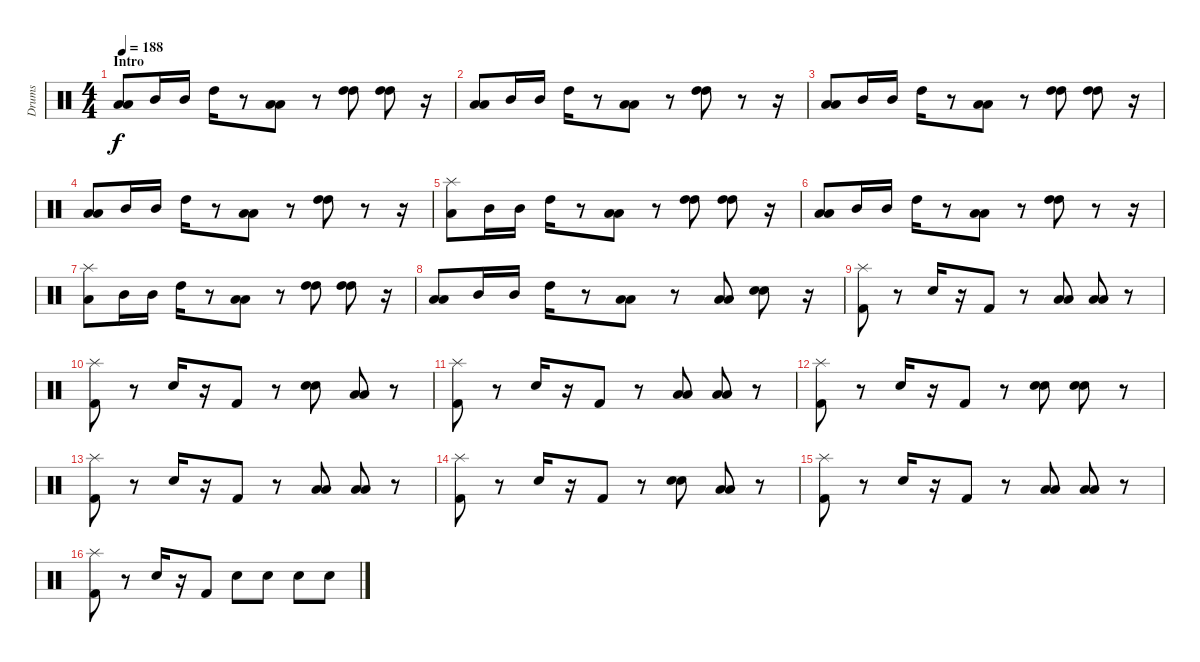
\track ("Drums" "Drums") {instrument percussion}
\staff {score}
\articulation defaults
\ts (4 4)
\section ("" "Intro")
\tempo 188
\clef neutral
\ks c
("Low Tom (hit)" "Low Tom (hit)").8{dy f} "Mid Tom (hit)".16 "Mid Tom (hit)".16 "High Tom (hit)".16 r.8 ("Low Tom (hit)" "Low Tom (hit)").8 r.8 ("High Tom (hit)" "High Tom (hit)").8 ("High Tom (hit)" "High Tom (hit)").8 r.16 |
("Low Tom (hit)" "Low Tom (hit)").8 "Mid Tom (hit)".16 "Mid Tom (hit)".16 "High Tom (hit)".16 r.8 ("Low Tom (hit)" "Low Tom (hit)").8 r.8 ("High Tom (hit)" "High Tom (hit)").8 r.8 r.16 |
("Low Tom (hit)" "Low Tom (hit)").8 "Mid Tom (hit)".16 "Mid Tom (hit)".16 "High Tom (hit)".16 r.8 ("Low Tom (hit)" "Low Tom (hit)").8 r.8 ("High Tom (hit)" "High Tom (hit)").8 ("High Tom (hit)" "High Tom (hit)").8 r.16 |
("Low Tom (hit)" "Low Tom (hit)").8 "Mid Tom (hit)".16 "Mid Tom (hit)".16 "High Tom (hit)".16 r.8 ("Low Tom (hit)" "Low Tom (hit)").8 r.8 ("High Tom (hit)" "High Tom (hit)").8 r.8 r.16 |
("Low Tom (hit)" "Splash (hit)").8 "Mid Tom (hit)".16 "Mid Tom (hit)".16 "High Tom (hit)".16 r.8 ("Low Tom (hit)" "Low Tom (hit)").8 r.8 ("High Tom (hit)" "High Tom (hit)").8 ("High Tom (hit)" "High Tom (hit)").8 r.16 |
("Low Tom (hit)" "Low Tom (hit)").8 "Mid Tom (hit)".16 "Mid Tom (hit)".16 "High Tom (hit)".16 r.8 ("Low Tom (hit)" "Low Tom (hit)").8 r.8 ("High Tom (hit)" "High Tom (hit)").8 r.8 r.16 |
("Low Tom (hit)" "Splash (hit)").8 "Mid Tom (hit)".16 "Mid Tom (hit)".16 "High Tom (hit)".16 r.8 ("Low Tom (hit)" "Low Tom (hit)").8 r.8 ("High Tom (hit)" "High Tom (hit)").8 ("High Tom (hit)" "High Tom (hit)").8 r.16 |
("Low Tom (hit)" "Low Tom (hit)").8 "Mid Tom (hit)".16 "Mid Tom (hit)".16 "High Tom (hit)".16 r.8 ("Low Tom (hit)" "Low Tom (hit)").8 r.8 ("Low Tom (hit)" "Low Tom (hit)").8 ("Snare (hit) 2" "Snare (hit) 2").8 r.16 |
("Kick (hit) 2" "Splash (hit)").8 r.8 "Snare (hit) 2".16 r.16 "Kick (hit) 2".8 r.8 ("Low Tom (hit)" "Low Tom (hit)").8 ("Low Tom (hit)" "Low Tom (hit)").8 r.8 |
("Kick (hit) 2" "Splash (hit)").8 r.8 "Snare (hit) 2".16 r.16 "Kick (hit) 2".8 r.8 ("Snare (hit) 2" "Snare (hit) 2").8 ("Low Tom (hit)" "Low Tom (hit)").8 r.8 |
("Kick (hit) 2" "Splash (hit)").8 r.8 "Snare (hit) 2".16 r.16 "Kick (hit) 2".8 r.8 ("Low Tom (hit)" "Low Tom (hit)").8 ("Low Tom (hit)" "Low Tom (hit)").8 r.8 |
("Kick (hit) 2" "Splash (hit)").8 r.8 "Snare (hit) 2".16 r.16 "Kick (hit) 2".8 r.8 ("Snare (hit) 2" "Snare (hit) 2").8 ("Snare (hit) 2" "Snare (hit) 2").8 r.8 |
("Kick (hit) 2" "Splash (hit)").8 r.8 "Snare (hit) 2".16 r.16 "Kick (hit) 2".8 r.8 ("Low Tom (hit)" "Low Tom (hit)").8 ("Low Tom (hit)" "Low Tom (hit)").8 r.8 |
("Kick (hit) 2" "Splash (hit)").8 r.8 "Snare (hit) 2".16 r.16 "Kick (hit) 2".8 r.8 ("Snare (hit) 2" "Snare (hit) 2").8 ("Low Tom (hit)" "Low Tom (hit)").8 r.8 |
("Kick (hit) 2" "Splash (hit)").8 r.8 "Snare (hit) 2".16 r.16 "Kick (hit) 2".8 r.8 ("Low Tom (hit)" "Low Tom (hit)").8 ("Low Tom (hit)" "Low Tom (hit)").8 r.8 |
("Kick (hit) 2" "Splash (hit)").8 r.8 "Snare (hit) 2".16 r.16 "Kick (hit) 2".8 "Snare (hit) 2".8 "Snare (hit) 2".8 "Snare (hit) 2".8 "Snare (hit) 2".8
